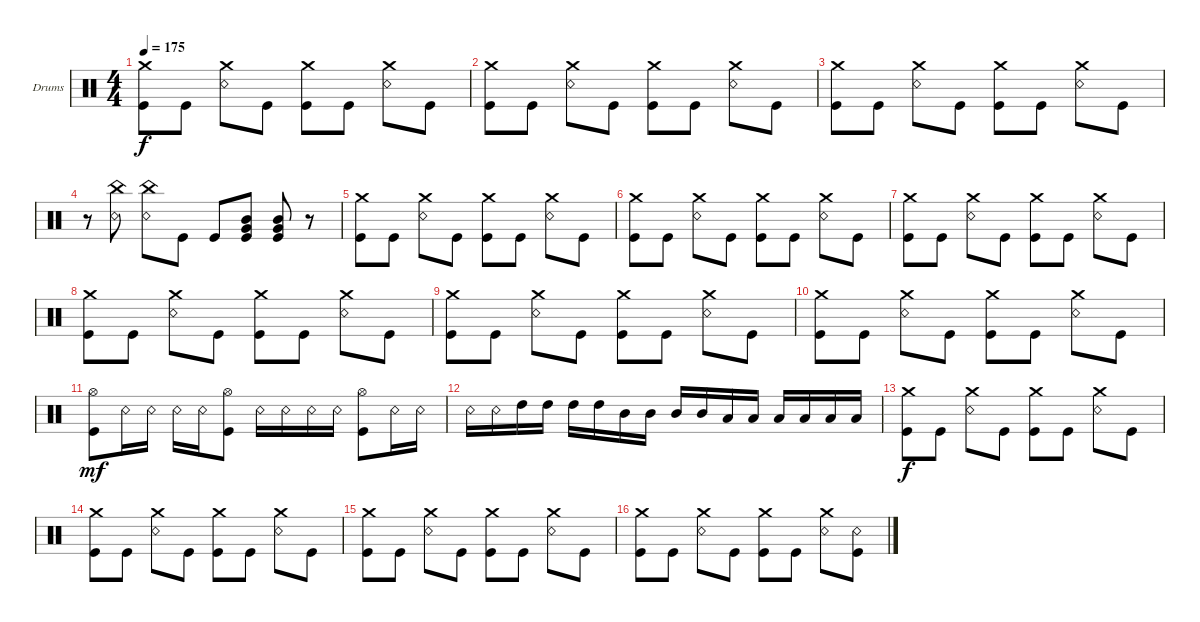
\bracketExtendMode groupsimilarinstruments
\firstSystemTrackNameOrientation horizontal
\otherSystemsTrackNameOrientation horizontal
\track ("Kanky Lora" "Drums") {instrument percussion}
\staff {score}
\articulation defaults
\ts (4 4)
\tempo 175
\clef neutral
\ks c
("Kick (hit)" "Crash medium (hit)").8{dy f} "Kick (hit)".8 ("Snare (rim shot)" "Crash medium (hit)").8 "Kick (hit)".8 ("Kick (hit)" "Crash medium (hit)").8 "Kick (hit)".8 ("Snare (rim shot)" "Crash medium (hit)").8 "Kick (hit)".8 |
("Kick (hit)" "Crash medium (hit)").8 "Kick (hit)".8 ("Snare (rim shot)" "Crash medium (hit)").8 "Kick (hit)".8 ("Kick (hit)" "Crash medium (hit)").8 "Kick (hit)".8 ("Snare (rim shot)" "Crash medium (hit)").8 "Kick (hit)".8 |
("Kick (hit)" "Crash medium (hit)").8 "Kick (hit)".8 ("Snare (rim shot)" "Crash medium (hit)").8 "Kick (hit)".8 ("Kick (hit)" "Crash medium (hit)").8 "Kick (hit)".8 ("Snare (rim shot)" "Crash medium (hit)").8 "Kick (hit)".8 |
r.8 ("Snare (rim shot)" "China (hit)").8 ("Snare (rim shot)" "China (hit)").8 "Kick (hit)".8 "Kick (hit)".8 ("Mid Tom (hit)" "Very Low Tom (hit)" "Kick (hit)").8 ("Kick (hit)" "Very Low Tom (hit)" "Mid Tom (hit)").8 r.8 |
("Kick (hit)" "Crash medium (hit)").8 "Kick (hit)".8 ("Snare (rim shot)" "Crash medium (hit)").8 "Kick (hit)".8 ("Kick (hit)" "Crash medium (hit)").8 "Kick (hit)".8 ("Snare (rim shot)" "Crash medium (hit)").8 "Kick (hit)".8 |
("Kick (hit)" "Crash medium (hit)").8 "Kick (hit)".8 ("Snare (rim shot)" "Crash medium (hit)").8 "Kick (hit)".8 ("Kick (hit)" "Crash medium (hit)").8 "Kick (hit)".8 ("Snare (rim shot)" "Crash medium (hit)").8 "Kick (hit)".8 |
("Kick (hit)" "Crash medium (hit)").8 "Kick (hit)".8 ("Snare (rim shot)" "Crash medium (hit)").8 "Kick (hit)".8 ("Kick (hit)" "Crash medium (hit)").8 "Kick (hit)".8 ("Snare (rim shot)" "Crash medium (hit)").8 "Kick (hit)".8 |
("Kick (hit)" "Crash medium (hit)").8 "Kick (hit)".8 ("Snare (rim shot)" "Crash medium (hit)").8 "Kick (hit)".8 ("Kick (hit)" "Crash medium (hit)").8 "Kick (hit)".8 ("Snare (rim shot)" "Crash medium (hit)").8 "Kick (hit)".8 |
("Kick (hit)" "Crash medium (hit)").8 "Kick (hit)".8 ("Snare (rim shot)" "Crash medium (hit)").8 "Kick (hit)".8 ("Kick (hit)" "Crash medium (hit)").8 "Kick (hit)".8 ("Snare (rim shot)" "Crash medium (hit)").8 "Kick (hit)".8 |
("Kick (hit)" "Crash medium (hit)").8 "Kick (hit)".8 ("Snare (rim shot)" "Crash medium (hit)").8 "Kick (hit)".8 ("Kick (hit)" "Crash medium (hit)").8 "Kick (hit)".8 ("Snare (rim shot)" "Crash medium (hit)").8 "Kick (hit)".8 |
("Kick (hit)" "Hi-Hat (open)").8{dy mf} "Snare (rim shot)".16 "Snare (rim shot)".16 "Snare (rim shot)".16 "Snare (rim shot)".16 ("Hi-Hat (open)" "Kick (hit)").8 "Snare (rim shot)".16 "Snare (rim shot)".16 "Snare (rim shot)".16 "Snare (rim shot)".16 ("Hi-Hat (open)" "Kick (hit)").8 "Snare (rim shot)".16 "Snare (rim shot)".16 |
"Snare (rim shot)".16 "Snare (rim shot)".16 "High Tom (hit)".16 "High Tom (hit)".16 "High Tom (hit)".16 "High Tom (hit)".16 "Mid Tom (hit)".16 "Mid Tom (hit)".16 "Mid Tom (hit)".16 "Mid Tom (hit)".16 "Low Tom (hit)".16 "Low Tom (hit)".16 "Low Tom (hit)".16 "Low Tom (hit)".16 "Low Tom (hit)".16 "Low Tom (hit)".16 |
("Kick (hit)" "Crash medium (hit)").8{dy f} "Kick (hit)".8 ("Snare (rim shot)" "Crash medium (hit)").8 "Kick (hit)".8 ("Kick (hit)" "Crash medium (hit)").8 "Kick (hit)".8 ("Snare (rim shot)" "Crash medium (hit)").8 "Kick (hit)".8 |
("Kick (hit)" "Crash medium (hit)").8 "Kick (hit)".8 ("Snare (rim shot)" "Crash medium (hit)").8 "Kick (hit)".8 ("Kick (hit)" "Crash medium (hit)").8 "Kick (hit)".8 ("Snare (rim shot)" "Crash medium (hit)").8 "Kick (hit)".8 |
("Kick (hit)" "Crash medium (hit)").8 "Kick (hit)".8 ("Snare (rim shot)" "Crash medium (hit)").8 "Kick (hit)".8 ("Kick (hit)" "Crash medium (hit)").8 "Kick (hit)".8 ("Snare (rim shot)" "Crash medium (hit)").8 "Kick (hit)".8 |
("Kick (hit)" "Crash medium (hit)").8 "Kick (hit)".8 ("Snare (rim shot)" "Crash medium (hit)").8 "Kick (hit)".8 ("Kick (hit)" "Crash medium (hit)").8 "Kick (hit)".8 ("Snare (rim shot)" "Crash medium (hit)").8 ("Kick (hit)" "Snare (rim shot)").8
